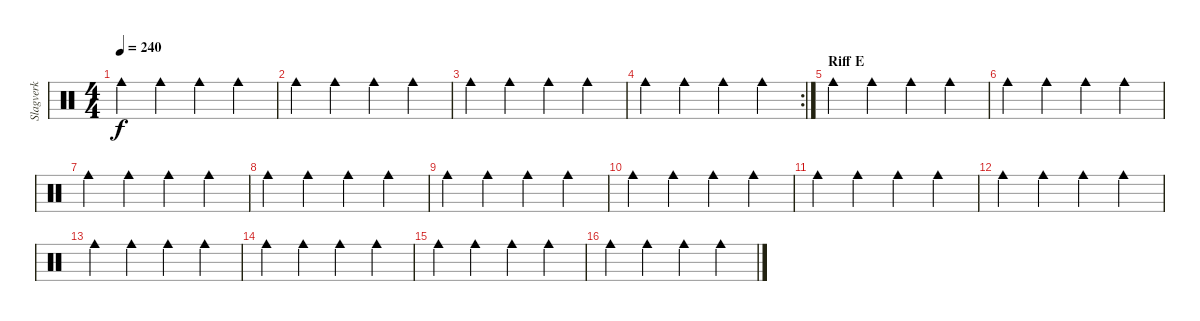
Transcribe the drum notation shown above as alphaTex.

\track ("Slagverk" "Slagverk") {instrument percussion}
\staff {score}
\articulation defaults
\ts (4 4)
\tempo 240
\clef neutral
\ks c "Cowbell medium (hit)".4{dy f} "Cowbell medium (hit)".4 "Cowbell medium (hit)".4 "Cowbell medium (hit)".4
|
"Cowbell medium (hit)".4 "Cowbell medium (hit)".4 "Cowbell medium (hit)".4 "Cowbell medium (hit)".4 |
"Cowbell medium (hit)".4 "Cowbell medium (hit)".4 "Cowbell medium (hit)".4 "Cowbell medium (hit)".4 |
\rc 2 "Cowbell medium (hit)".4 "Cowbell medium (hit)".4 "Cowbell medium (hit)".4 "Cowbell medium (hit)".4
|
\section ("" "Riff E")
"Cowbell medium (hit)".4 "Cowbell medium (hit)".4 "Cowbell medium (hit)".4 "Cowbell medium (hit)".4 |
"Cowbell medium (hit)".4 "Cowbell medium (hit)".4 "Cowbell medium (hit)".4 "Cowbell medium (hit)".4 |
"Cowbell medium (hit)".4 "Cowbell medium (hit)".4 "Cowbell medium (hit)".4 "Cowbell medium (hit)".4 |
"Cowbell medium (hit)".4 "Cowbell medium (hit)".4 "Cowbell medium (hit)".4 "Cowbell medium (hit)".4 |
"Cowbell medium (hit)".4 "Cowbell medium (hit)".4 "Cowbell medium (hit)".4 "Cowbell medium (hit)".4 |
"Cowbell medium (hit)".4 "Cowbell medium (hit)".4 "Cowbell medium (hit)".4 "Cowbell medium (hit)".4 |
"Cowbell medium (hit)".4 "Cowbell medium (hit)".4 "Cowbell medium (hit)".4 "Cowbell medium (hit)".4 |
"Cowbell medium (hit)".4 "Cowbell medium (hit)".4 "Cowbell medium (hit)".4 "Cowbell medium (hit)".4 |
"Cowbell medium (hit)".4 "Cowbell medium (hit)".4 "Cowbell medium (hit)".4 "Cowbell medium (hit)".4 |
"Cowbell medium (hit)".4 "Cowbell medium (hit)".4 "Cowbell medium (hit)".4 "Cowbell medium (hit)".4 |
"Cowbell medium (hit)".4 "Cowbell medium (hit)".4 "Cowbell medium (hit)".4 "Cowbell medium (hit)".4 |
"Cowbell medium (hit)".4 "Cowbell medium (hit)".4 "Cowbell medium (hit)".4 "Cowbell medium (hit)".4
